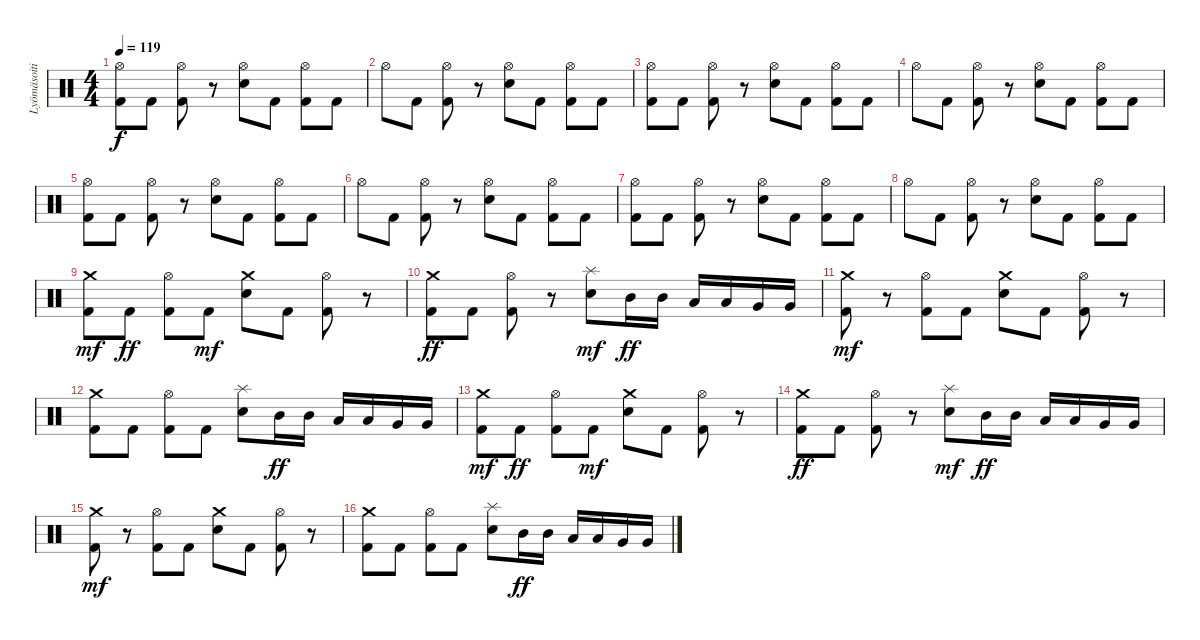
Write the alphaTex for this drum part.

\track ("Lyömäsoitin" "Lyömäsoiti") {instrument percussion}
\staff {score}
\articulation defaults
\ts (4 4)
\tempo 119
\clef neutral
\ks c
("Hi-Hat (open)" "Kick (hit) 2").8{dy f} "Kick (hit) 2".8 ("Hi-Hat (open)" "Kick (hit) 2").8 r.8 ("Hi-Hat (open)" "Snare (hit) 2").8 "Kick (hit) 2".8 ("Hi-Hat (open)" "Kick (hit) 2").8 "Kick (hit) 2".8 |
"Hi-Hat (open)".8 "Kick (hit) 2".8 ("Hi-Hat (open)" "Kick (hit) 2").8 r.8 ("Hi-Hat (open)" "Snare (hit) 2").8 "Kick (hit) 2".8 ("Hi-Hat (open)" "Kick (hit) 2").8 "Kick (hit) 2".8 |
("Hi-Hat (open)" "Kick (hit) 2").8 "Kick (hit) 2".8 ("Hi-Hat (open)" "Kick (hit) 2").8 r.8 ("Hi-Hat (open)" "Snare (hit) 2").8 "Kick (hit) 2".8 ("Hi-Hat (open)" "Kick (hit) 2").8 "Kick (hit) 2".8 |
"Hi-Hat (open)".8 "Kick (hit) 2".8 ("Hi-Hat (open)" "Kick (hit) 2").8 r.8 ("Hi-Hat (open)" "Snare (hit) 2").8 "Kick (hit) 2".8 ("Hi-Hat (open)" "Kick (hit) 2").8 "Kick (hit) 2".8 |
("Hi-Hat (open)" "Kick (hit) 2").8 "Kick (hit) 2".8 ("Hi-Hat (open)" "Kick (hit) 2").8 r.8 ("Hi-Hat (open)" "Snare (hit) 2").8 "Kick (hit) 2".8 ("Hi-Hat (open)" "Kick (hit) 2").8 "Kick (hit) 2".8 |
"Hi-Hat (open)".8 "Kick (hit) 2".8 ("Hi-Hat (open)" "Kick (hit) 2").8 r.8 ("Hi-Hat (open)" "Snare (hit) 2").8 "Kick (hit) 2".8 ("Hi-Hat (open)" "Kick (hit) 2").8 "Kick (hit) 2".8 |
("Hi-Hat (open)" "Kick (hit) 2").8 "Kick (hit) 2".8 ("Hi-Hat (open)" "Kick (hit) 2").8 r.8 ("Hi-Hat (open)" "Snare (hit) 2").8 "Kick (hit) 2".8 ("Hi-Hat (open)" "Kick (hit) 2").8 "Kick (hit) 2".8 |
"Hi-Hat (open)".8 "Kick (hit) 2".8 ("Hi-Hat (open)" "Kick (hit) 2").8 r.8 ("Hi-Hat (open)" "Snare (hit) 2").8 "Kick (hit) 2".8 ("Hi-Hat (open)" "Kick (hit) 2").8 "Kick (hit) 2".8 |
("Crash medium (hit)" "Kick (hit) 2").8{dy mf} "Kick (hit) 2".8{dy ff} ("Hi-Hat (open)" "Kick (hit) 2").8 "Kick (hit) 2".8{dy mf} ("Crash medium (hit)" "Snare (hit) 2").8 "Kick (hit) 2".8 ("Hi-Hat (open)" "Kick (hit) 2").8 r.8 |
("Crash medium (hit)" "Kick (hit) 2").8{dy ff} "Kick (hit) 2".8 ("Hi-Hat (open)" "Kick (hit) 2").8 r.8 ("Splash (hit)" "Snare (hit) 2").8{dy mf} "Mid Tom (hit)".16{dy ff} "Mid Tom (hit)".16 "Low Tom (hit)".16 "Low Tom (hit)".16 "Very Low Tom (hit)".16 "Very Low Tom (hit)".16 |
("Crash medium (hit)" "Kick (hit) 2").8{dy mf} r.8 ("Hi-Hat (open)" "Kick (hit) 2").8 "Kick (hit) 2".8 ("Crash medium (hit)" "Snare (hit) 2").8 "Kick (hit) 2".8 ("Hi-Hat (open)" "Kick (hit) 2").8 r.8 |
("Crash medium (hit)" "Kick (hit) 2").8 "Kick (hit) 2".8 ("Hi-Hat (open)" "Kick (hit) 2").8 "Kick (hit) 2".8 ("Splash (hit)" "Snare (hit) 2").8 "Mid Tom (hit)".16{dy ff} "Mid Tom (hit)".16 "Low Tom (hit)".16 "Low Tom (hit)".16 "Very Low Tom (hit)".16 "Very Low Tom (hit)".16 |
("Crash medium (hit)" "Kick (hit) 2").8{dy mf} "Kick (hit) 2".8{dy ff} ("Hi-Hat (open)" "Kick (hit) 2").8 "Kick (hit) 2".8{dy mf} ("Crash medium (hit)" "Snare (hit) 2").8 "Kick (hit) 2".8 ("Hi-Hat (open)" "Kick (hit) 2").8 r.8 |
("Crash medium (hit)" "Kick (hit) 2").8{dy ff} "Kick (hit) 2".8 ("Hi-Hat (open)" "Kick (hit) 2").8 r.8 ("Splash (hit)" "Snare (hit) 2").8{dy mf} "Mid Tom (hit)".16{dy ff} "Mid Tom (hit)".16 "Low Tom (hit)".16 "Low Tom (hit)".16 "Very Low Tom (hit)".16 "Very Low Tom (hit)".16 |
("Crash medium (hit)" "Kick (hit) 2").8{dy mf} r.8 ("Hi-Hat (open)" "Kick (hit) 2").8 "Kick (hit) 2".8 ("Crash medium (hit)" "Snare (hit) 2").8 "Kick (hit) 2".8 ("Hi-Hat (open)" "Kick (hit) 2").8 r.8 |
("Crash medium (hit)" "Kick (hit) 2").8 "Kick (hit) 2".8 ("Hi-Hat (open)" "Kick (hit) 2").8 "Kick (hit) 2".8 ("Splash (hit)" "Snare (hit) 2").8 "Mid Tom (hit)".16{dy ff} "Mid Tom (hit)".16 "Low Tom (hit)".16 "Low Tom (hit)".16 "Very Low Tom (hit)".16 "Very Low Tom (hit)".16
